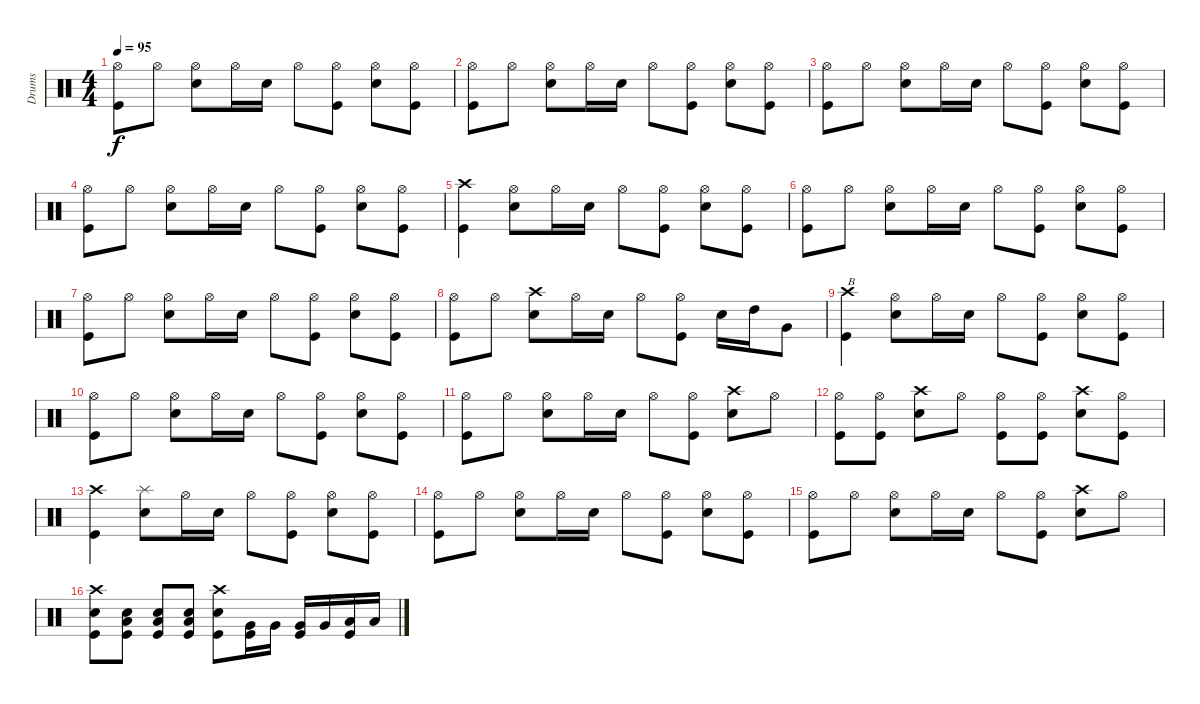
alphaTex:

\track ("Drums" "Drums") {instrument percussion}
\staff {score}
\articulation defaults
\ts (4 4)
\tempo 95
\clef neutral
\ks c
("Hi-Hat (open)" "Kick (hit)").8{dy f} "Hi-Hat (open)".8 ("Hi-Hat (open)" "Electric Snare (hit)").8 "Hi-Hat (open)".16 "Electric Snare (hit)".16 "Hi-Hat (open)".8 ("Hi-Hat (open)" "Kick (hit)").8 ("Hi-Hat (open)" "Electric Snare (hit)").8 ("Hi-Hat (open)" "Kick (hit)").8 |
("Hi-Hat (open)" "Kick (hit)").8 "Hi-Hat (open)".8 ("Hi-Hat (open)" "Electric Snare (hit)").8 "Hi-Hat (open)".16 "Electric Snare (hit)".16 "Hi-Hat (open)".8 ("Hi-Hat (open)" "Kick (hit)").8 ("Hi-Hat (open)" "Electric Snare (hit)").8 ("Hi-Hat (open)" "Kick (hit)").8 |
("Hi-Hat (open)" "Kick (hit)").8 "Hi-Hat (open)".8 ("Hi-Hat (open)" "Electric Snare (hit)").8 "Hi-Hat (open)".16 "Electric Snare (hit)".16 "Hi-Hat (open)".8 ("Hi-Hat (open)" "Kick (hit)").8 ("Hi-Hat (open)" "Electric Snare (hit)").8 ("Hi-Hat (open)" "Kick (hit)").8 |
("Hi-Hat (open)" "Kick (hit)").8 "Hi-Hat (open)".8 ("Hi-Hat (open)" "Electric Snare (hit)").8 "Hi-Hat (open)".16 "Electric Snare (hit)".16 "Hi-Hat (open)".8 ("Hi-Hat (open)" "Kick (hit)").8 ("Hi-Hat (open)" "Electric Snare (hit)").8 ("Hi-Hat (open)" "Kick (hit)").8 |
("Crash high (hit)" "Kick (hit)").4 ("Hi-Hat (open)" "Electric Snare (hit)").8 "Hi-Hat (open)".16 "Electric Snare (hit)".16 "Hi-Hat (open)".8 ("Hi-Hat (open)" "Kick (hit)").8 ("Hi-Hat (open)" "Electric Snare (hit)").8 ("Hi-Hat (open)" "Kick (hit)").8 |
("Hi-Hat (open)" "Kick (hit)").8 "Hi-Hat (open)".8 ("Hi-Hat (open)" "Electric Snare (hit)").8 "Hi-Hat (open)".16 "Electric Snare (hit)".16 "Hi-Hat (open)".8 ("Hi-Hat (open)" "Kick (hit)").8 ("Hi-Hat (open)" "Electric Snare (hit)").8 ("Hi-Hat (open)" "Kick (hit)").8 |
("Hi-Hat (open)" "Kick (hit)").8 "Hi-Hat (open)".8 ("Hi-Hat (open)" "Electric Snare (hit)").8 "Hi-Hat (open)".16 "Electric Snare (hit)".16 "Hi-Hat (open)".8 ("Hi-Hat (open)" "Kick (hit)").8 ("Hi-Hat (open)" "Electric Snare (hit)").8 ("Hi-Hat (open)" "Kick (hit)").8 |
("Hi-Hat (open)" "Kick (hit)").8 "Hi-Hat (open)".8 ("Crash high (hit)" "Electric Snare (hit)").8 "Hi-Hat (open)".16 "Electric Snare (hit)".16 "Hi-Hat (open)".8 ("Hi-Hat (open)" "Kick (hit)").8 "Electric Snare (hit)".16 "High Tom (hit)".16 "Very Low Tom (hit)".8 |
("Crash high (hit)" "Kick (hit)").4{txt "B"} ("Hi-Hat (open)" "Electric Snare (hit)").8 "Hi-Hat (open)".16 "Electric Snare (hit)".16 "Hi-Hat (open)".8 ("Hi-Hat (open)" "Kick (hit)").8 ("Hi-Hat (open)" "Electric Snare (hit)").8 ("Hi-Hat (open)" "Kick (hit)").8 |
("Hi-Hat (open)" "Kick (hit)").8 "Hi-Hat (open)".8 ("Hi-Hat (open)" "Electric Snare (hit)").8 "Hi-Hat (open)".16 "Electric Snare (hit)".16 "Hi-Hat (open)".8 ("Hi-Hat (open)" "Kick (hit)").8 ("Hi-Hat (open)" "Electric Snare (hit)").8 ("Hi-Hat (open)" "Kick (hit)").8 |
("Hi-Hat (open)" "Kick (hit)").8 "Hi-Hat (open)".8 ("Hi-Hat (open)" "Electric Snare (hit)").8 "Hi-Hat (open)".16 "Electric Snare (hit)".16 "Hi-Hat (open)".8 ("Hi-Hat (open)" "Kick (hit)").8 ("Crash high (hit)" "Electric Snare (hit)").8 "Hi-Hat (open)".8 |
("Hi-Hat (open)" "Kick (hit)").8 ("Hi-Hat (open)" "Kick (hit)").8 ("Crash high (hit)" "Electric Snare (hit)").8 "Hi-Hat (open)".8 ("Hi-Hat (open)" "Kick (hit)").8 ("Hi-Hat (open)" "Kick (hit)").8 ("Crash high (hit)" "Electric Snare (hit)").8 ("Hi-Hat (open)" "Kick (hit)").8 |
("Crash high (hit)" "Kick (hit)").4 ("Splash (hit)" "Electric Snare (hit)").8 "Hi-Hat (open)".16 "Electric Snare (hit)".16 "Hi-Hat (open)".8 ("Hi-Hat (open)" "Kick (hit)").8 ("Hi-Hat (open)" "Electric Snare (hit)").8 ("Hi-Hat (open)" "Kick (hit)").8 |
("Hi-Hat (open)" "Kick (hit)").8 "Hi-Hat (open)".8 ("Hi-Hat (open)" "Electric Snare (hit)").8 "Hi-Hat (open)".16 "Electric Snare (hit)".16 "Hi-Hat (open)".8 ("Hi-Hat (open)" "Kick (hit)").8 ("Hi-Hat (open)" "Electric Snare (hit)").8 ("Hi-Hat (open)" "Kick (hit)").8 |
("Hi-Hat (open)" "Kick (hit)").8 "Hi-Hat (open)".8 ("Hi-Hat (open)" "Electric Snare (hit)").8 "Hi-Hat (open)".16 "Electric Snare (hit)".16 "Hi-Hat (open)".8 ("Hi-Hat (open)" "Kick (hit)").8 ("Crash high (hit)" "Electric Snare (hit)").8 "Hi-Hat (open)".8 |
("Crash high (hit)" "Electric Snare (hit)" "Kick (hit)").8 ("Low Floor Tom (hit)" "Electric Snare (hit)" "Kick (hit)").8 ("Low Floor Tom (hit)" "Electric Snare (hit)" "Kick (hit)").8 ("Low Floor Tom (hit)" "Electric Snare (hit)" "Kick (hit)").8 ("Crash high (hit)" "Electric Snare (hit)" "Kick (hit)").8 ("Very Low Tom (hit)" "Kick (hit)").16 "Very Low Tom (hit)".16 ("Very Low Tom (hit)" "Kick (hit)").16 "Very Low Tom (hit)".16 ("Low Floor Tom (hit)" "Kick (hit)").16 "Low Floor Tom (hit)".16
